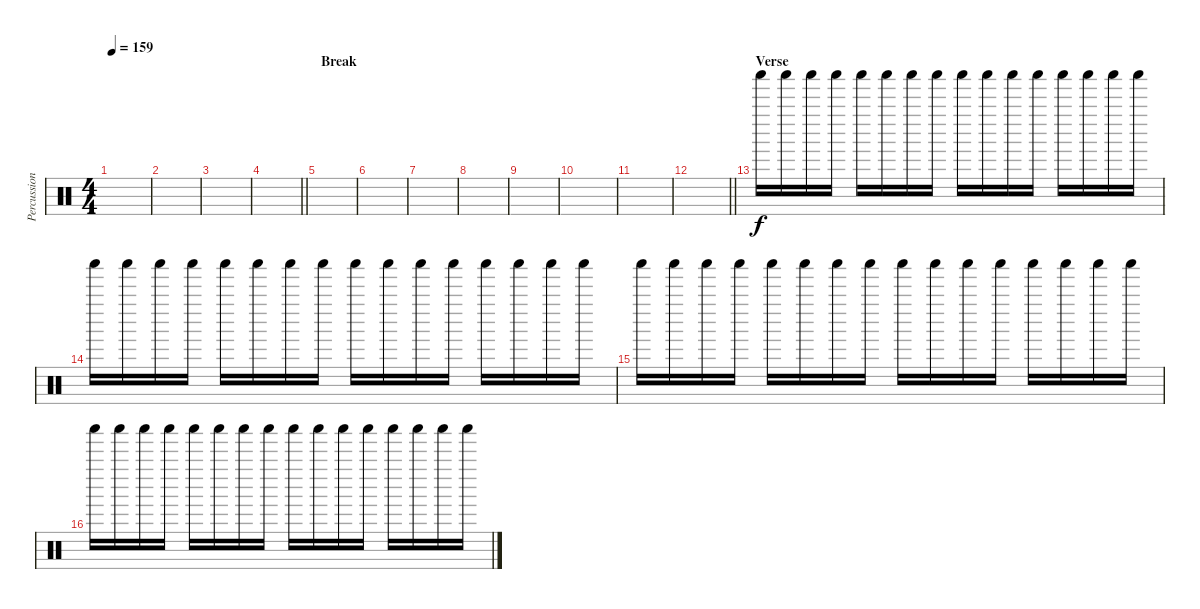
\track ("Percussion" "Percussion") {instrument percussion}
\staff {score}
\articulation defaults
\ts (4 4)
\tempo 159
\clef neutral
\ks c
|
|
|
\barLineRight lightlight
|
\section ("" "Break")
|
|
|
|
|
|
|
\barLineRight lightlight
|
\section ("" "Verse")
"Shaker (hit)".16 "Shaker (hit)".16 "Shaker (hit)".16 "Shaker (hit)".16 "Shaker (hit)".16 "Shaker (hit)".16 "Shaker (hit)".16 "Shaker (hit)".16 "Shaker (hit)".16 "Shaker (hit)".16 "Shaker (hit)".16 "Shaker (hit)".16 "Shaker (hit)".16 "Shaker (hit)".16 "Shaker (hit)".16 "Shaker (hit)".16 |
"Shaker (hit)".16 "Shaker (hit)".16 "Shaker (hit)".16 "Shaker (hit)".16 "Shaker (hit)".16 "Shaker (hit)".16 "Shaker (hit)".16 "Shaker (hit)".16 "Shaker (hit)".16 "Shaker (hit)".16 "Shaker (hit)".16 "Shaker (hit)".16 "Shaker (hit)".16 "Shaker (hit)".16 "Shaker (hit)".16 "Shaker (hit)".16 |
"Shaker (hit)".16 "Shaker (hit)".16 "Shaker (hit)".16 "Shaker (hit)".16 "Shaker (hit)".16 "Shaker (hit)".16 "Shaker (hit)".16 "Shaker (hit)".16 "Shaker (hit)".16 "Shaker (hit)".16 "Shaker (hit)".16 "Shaker (hit)".16 "Shaker (hit)".16 "Shaker (hit)".16 "Shaker (hit)".16 "Shaker (hit)".16 |
"Shaker (hit)".16 "Shaker (hit)".16 "Shaker (hit)".16 "Shaker (hit)".16 "Shaker (hit)".16 "Shaker (hit)".16 "Shaker (hit)".16 "Shaker (hit)".16 "Shaker (hit)".16 "Shaker (hit)".16 "Shaker (hit)".16 "Shaker (hit)".16 "Shaker (hit)".16 "Shaker (hit)".16 "Shaker (hit)".16 "Shaker (hit)".16
